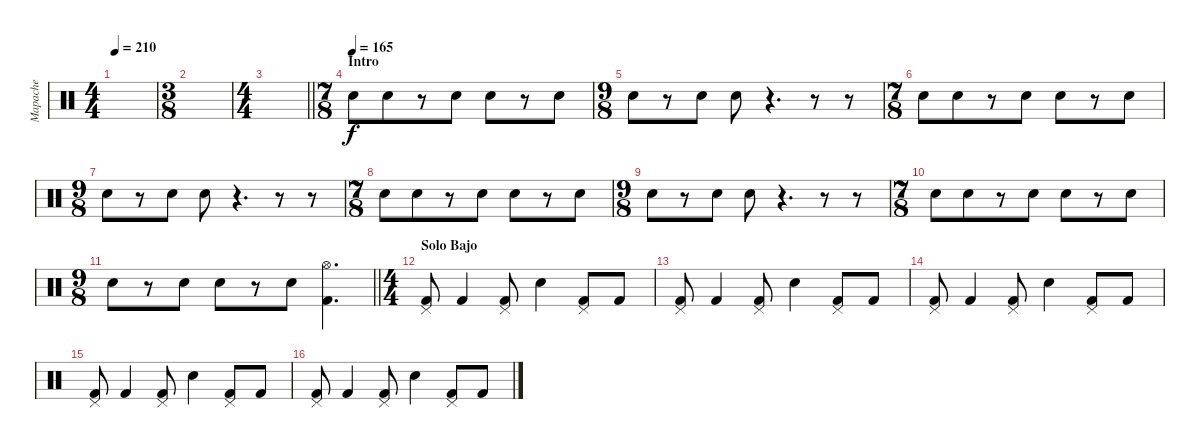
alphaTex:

\track ("Mapache" "Mapache") {instrument percussion}
\staff
\articulation defaults
\ts (4 4)
\tempo 210
\clef neutral
\ks c
|
\ts (3 8)
|
\ts (4 4)
\barLineRight lightlight
|
\ts (7 8)
\section ("" "Intro")
\tempo (165)
"Electric Snare (hit)".8 "Electric Snare (hit)".8 r.8 "Electric Snare (hit)".8 "Electric Snare (hit)".8 r.8 "Electric Snare (hit)".8 |
\ts (9 8)
"Electric Snare (hit)".8 r.8 "Electric Snare (hit)".8 "Electric Snare (hit)".8 r.4{d} r.8 r.8 |
\ts (7 8)
"Electric Snare (hit)".8 "Electric Snare (hit)".8 r.8 "Electric Snare (hit)".8 "Electric Snare (hit)".8 r.8 "Electric Snare (hit)".8 |
\ts (9 8)
"Electric Snare (hit)".8 r.8 "Electric Snare (hit)".8 "Electric Snare (hit)".8 r.4{d} r.8 r.8 |
\ts (7 8)
"Electric Snare (hit)".8 "Electric Snare (hit)".8 r.8 "Electric Snare (hit)".8 "Electric Snare (hit)".8 r.8 "Electric Snare (hit)".8 |
\ts (9 8)
"Electric Snare (hit)".8 r.8 "Electric Snare (hit)".8 "Electric Snare (hit)".8 r.4{d} r.8 r.8 |
\ts (7 8)
"Electric Snare (hit)".8 "Electric Snare (hit)".8 r.8 "Electric Snare (hit)".8 "Electric Snare (hit)".8 r.8 "Electric Snare (hit)".8 |
\ts (9 8)
\barLineRight lightlight "Electric Snare (hit)".8
r.8 "Electric Snare (hit)".8 "Electric Snare (hit)".8 r.8 "Electric Snare (hit)".8 ("Hi-Hat (open)" "Kick (hit) 2").4{d} |
\ts (4 4)
\section ("" "Solo Bajo")
("Pedal Hi-Hat (hit)" "Kick (hit) 2").8{dy f} "Kick (hit) 2".4 ("Pedal Hi-Hat (hit)" "Kick (hit) 2").8 "Electric Snare (hit)".4 ("Pedal Hi-Hat (hit)" "Kick (hit) 2").8 "Kick (hit) 2".8 |
("Pedal Hi-Hat (hit)" "Kick (hit) 2").8 "Kick (hit) 2".4 ("Pedal Hi-Hat (hit)" "Kick (hit) 2").8 "Electric Snare (hit)".4 ("Pedal Hi-Hat (hit)" "Kick (hit) 2").8 "Kick (hit) 2".8 |
("Pedal Hi-Hat (hit)" "Kick (hit) 2").8 "Kick (hit) 2".4 ("Pedal Hi-Hat (hit)" "Kick (hit) 2").8 "Electric Snare (hit)".4 ("Pedal Hi-Hat (hit)" "Kick (hit) 2").8 "Kick (hit) 2".8 |
("Pedal Hi-Hat (hit)" "Kick (hit) 2").8 "Kick (hit) 2".4 ("Pedal Hi-Hat (hit)" "Kick (hit) 2").8 "Electric Snare (hit)".4 ("Pedal Hi-Hat (hit)" "Kick (hit) 2").8 "Kick (hit) 2".8 |
("Pedal Hi-Hat (hit)" "Kick (hit) 2").8 "Kick (hit) 2".4 ("Pedal Hi-Hat (hit)" "Kick (hit) 2").8 "Electric Snare (hit)".4 ("Pedal Hi-Hat (hit)" "Kick (hit) 2").8 "Kick (hit) 2".8
